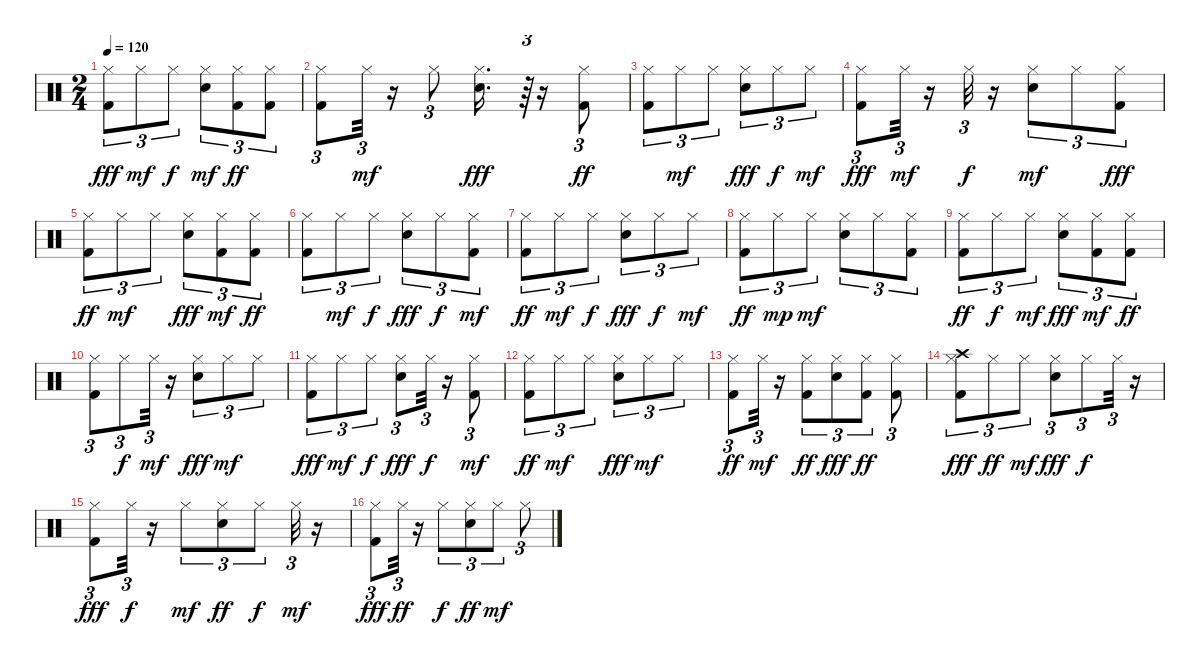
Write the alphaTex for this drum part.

\track "" {instrument percussion}
\staff {score}
\articulation defaults
\ts (2 4)
\tempo 120
\clef neutral
\ks c
("Kick (hit) 2" "Hi-Hat (closed)").8{tu (3 2) dy fff} "Hi-Hat (closed)".8{tu (3 2) dy mf} "Hi-Hat (closed)".8{tu (3 2) dy f} ("Snare (hit) 2" "Hi-Hat (closed)").8{tu (3 2) dy mf} ("Kick (hit) 2" "Hi-Hat (closed)").8{tu (3 2) dy ff} ("Hi-Hat (closed)" "Kick (hit) 2").8{tu (3 2)} |
("Kick (hit) 2" "Hi-Hat (closed)").8{tu (3 2)} "Hi-Hat (closed)".32{tu (3 2) dy mf} r.16 "Hi-Hat (closed)".8{tu (3 2)} ("Snare (hit) 2" "Hi-Hat (closed)").16{d dy fff} r.64{tu (3 2)} r.16 ("Hi-Hat (closed)" "Kick (hit) 2").8{tu (3 2) dy ff} |
("Hi-Hat (closed)" "Kick (hit) 2").8{tu (3 2)} "Hi-Hat (closed)".8{tu (3 2) dy mf} "Hi-Hat (closed)".8{tu (3 2)} ("Snare (hit) 2" "Hi-Hat (closed)").8{tu (3 2) dy fff} "Hi-Hat (closed)".8{tu (3 2) dy f} "Hi-Hat (closed)".8{tu (3 2) dy mf} |
("Kick (hit) 2" "Hi-Hat (closed)").8{tu (3 2) dy fff} "Hi-Hat (closed)".32{tu (3 2) dy mf} r.16 "Hi-Hat (closed)".32{tu (3 2) dy f} r.16 ("Snare (hit) 2" "Hi-Hat (closed)").8{tu (3 2) dy mf} "Hi-Hat (closed)".8{tu (3 2)} ("Hi-Hat (closed)" "Kick (hit) 2").8{tu (3 2) dy fff} |
("Hi-Hat (closed)" "Kick (hit) 2").8{tu (3 2) dy ff} "Hi-Hat (closed)".8{tu (3 2) dy mf} "Hi-Hat (closed)".8{tu (3 2)} ("Snare (hit) 2" "Hi-Hat (closed)").8{tu (3 2) dy fff} ("Kick (hit) 2" "Hi-Hat (closed)").8{tu (3 2) dy mf} ("Kick (hit) 2" "Hi-Hat (closed)").8{tu (3 2) dy ff} |
("Kick (hit) 2" "Hi-Hat (closed)").8{tu (3 2)} "Hi-Hat (closed)".8{tu (3 2) dy mf} "Hi-Hat (closed)".8{tu (3 2) dy f} ("Snare (hit) 2" "Hi-Hat (closed)").8{tu (3 2) dy fff} "Hi-Hat (closed)".8{tu (3 2) dy f} ("Kick (hit) 2" "Hi-Hat (closed)").8{tu (3 2) dy mf} |
("Kick (hit) 2" "Hi-Hat (closed)").8{tu (3 2) dy ff} "Hi-Hat (closed)".8{tu (3 2) dy mf} "Hi-Hat (closed)".8{tu (3 2) dy f} ("Snare (hit) 2" "Hi-Hat (closed)").8{tu (3 2) dy fff} "Hi-Hat (closed)".8{tu (3 2) dy f} "Hi-Hat (closed)".8{tu (3 2) dy mf} |
("Kick (hit) 2" "Hi-Hat (closed)").8{tu (3 2) dy ff} "Hi-Hat (closed)".8{tu (3 2) dy mp} "Hi-Hat (closed)".8{tu (3 2) dy mf} ("Snare (hit) 2" "Hi-Hat (closed)").8{tu (3 2)} "Hi-Hat (closed)".8{tu (3 2)} ("Kick (hit) 2" "Hi-Hat (closed)").8{tu (3 2)} |
("Kick (hit) 2" "Hi-Hat (closed)").8{tu (3 2) dy ff} "Hi-Hat (closed)".8{tu (3 2) dy f} "Hi-Hat (closed)".8{tu (3 2) dy mf} ("Snare (hit) 2" "Hi-Hat (closed)").8{tu (3 2) dy fff} ("Kick (hit) 2" "Hi-Hat (closed)").8{tu (3 2) dy mf} ("Hi-Hat (closed)" "Kick (hit) 2").8{tu (3 2) dy ff} |
("Kick (hit) 2" "Hi-Hat (closed)").8{tu (3 2)} "Hi-Hat (closed)".8{tu (3 2) dy f} "Hi-Hat (closed)".32{tu (3 2) dy mf} r.16 ("Snare (hit) 2" "Hi-Hat (closed)").8{tu (3 2) dy fff} "Hi-Hat (closed)".8{tu (3 2) dy mf} "Hi-Hat (closed)".8{tu (3 2)} |
("Kick (hit) 2" "Hi-Hat (closed)").8{tu (3 2) dy fff} "Hi-Hat (closed)".8{tu (3 2) dy mf} "Hi-Hat (closed)".8{tu (3 2) dy f} ("Snare (hit) 2" "Hi-Hat (closed)").8{tu (3 2) dy fff} "Hi-Hat (closed)".32{tu (3 2) dy f} r.16 ("Kick (hit) 2" "Hi-Hat (closed)").8{tu (3 2) dy mf} |
("Kick (hit) 2" "Hi-Hat (closed)").8{tu (3 2) dy ff} "Hi-Hat (closed)".8{tu (3 2) dy mf} "Hi-Hat (closed)".8{tu (3 2)} ("Snare (hit) 2" "Hi-Hat (closed)").8{tu (3 2) dy fff} "Hi-Hat (closed)".8{tu (3 2) dy mf} "Hi-Hat (closed)".8{tu (3 2)} |
("Kick (hit) 2" "Hi-Hat (closed)").8{tu (3 2) dy ff} "Hi-Hat (closed)".32{tu (3 2) dy mf} r.16 ("Kick (hit) 2" "Hi-Hat (closed)").8{tu (3 2) dy ff} ("Snare (hit) 2" "Hi-Hat (closed)").8{tu (3 2) dy fff} ("Kick (hit) 2" "Hi-Hat (closed)").8{tu (3 2) dy ff} ("Kick (hit) 2" "Hi-Hat (closed)").8{tu (3 2)} |
("Hi-Hat (closed)" "Crash high (hit)" "Kick (hit) 2").8{tu (3 2) dy fff} "Hi-Hat (closed)".8{tu (3 2) dy ff} "Hi-Hat (closed)".8{tu (3 2) dy mf} ("Hi-Hat (closed)" "Snare (hit) 2").8{tu (3 2) dy fff} "Hi-Hat (closed)".8{tu (3 2) dy f} "Hi-Hat (closed)".32{tu (3 2)} r.16 |
("Kick (hit) 2" "Hi-Hat (closed)").8{tu (3 2) dy fff} "Hi-Hat (closed)".32{tu (3 2) dy f} r.16 "Hi-Hat (closed)".8{tu (3 2) dy mf} ("Snare (hit) 2" "Hi-Hat (closed)").8{tu (3 2) dy ff} "Hi-Hat (closed)".8{tu (3 2) dy f} "Hi-Hat (closed)".32{tu (3 2) dy mf} r.16 |
("Kick (hit) 2" "Hi-Hat (closed)").8{tu (3 2) dy fff} "Hi-Hat (closed)".32{tu (3 2) dy ff} r.16 "Hi-Hat (closed)".8{tu (3 2) dy f} ("Snare (hit) 2" "Hi-Hat (closed)").8{tu (3 2) dy ff} "Hi-Hat (closed)".8{tu (3 2) dy mf} "Hi-Hat (closed)".8{tu (3 2)}
